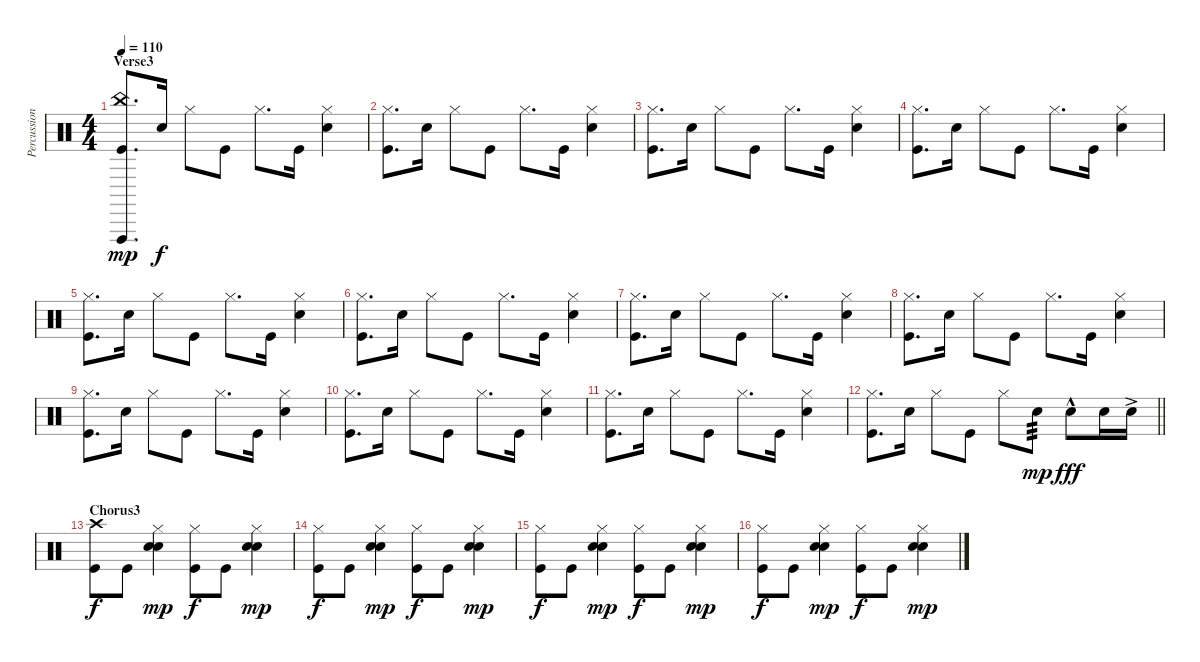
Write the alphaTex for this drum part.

\track ("Percussion" "Percussion") {instrument percussion}
\staff {score}
\articulation defaults
\ts (4 4)
\section ("" "Verse3")
\tempo 110
\clef neutral
\ks c
("Vibraslap (hit)" "Kick (hit)" "China (hit)").8{d dy mp} "Snare (hit) 2".16{dy f} "Hi-Hat (closed)".8 "Kick (hit)".8 "Hi-Hat (closed)".8{d} "Kick (hit)".16 ("Hi-Hat (closed)" "Snare (hit) 2").4 |
("Hi-Hat (closed)" "Kick (hit)").8{d} "Snare (hit) 2".16 "Hi-Hat (closed)".8 "Kick (hit)".8 "Hi-Hat (closed)".8{d} "Kick (hit)".16 ("Hi-Hat (closed)" "Snare (hit) 2").4 |
("Hi-Hat (closed)" "Kick (hit)").8{d} "Snare (hit) 2".16 "Hi-Hat (closed)".8 "Kick (hit)".8 "Hi-Hat (closed)".8{d} "Kick (hit)".16 ("Hi-Hat (closed)" "Snare (hit) 2").4 |
("Hi-Hat (closed)" "Kick (hit)").8{d} "Snare (hit) 2".16 "Hi-Hat (closed)".8 "Kick (hit)".8 "Hi-Hat (closed)".8{d} "Kick (hit)".16 ("Hi-Hat (closed)" "Snare (hit) 2").4 |
("Hi-Hat (closed)" "Kick (hit)").8{d} "Snare (hit) 2".16 "Hi-Hat (closed)".8 "Kick (hit)".8 "Hi-Hat (closed)".8{d} "Kick (hit)".16 ("Hi-Hat (closed)" "Snare (hit) 2").4 |
("Hi-Hat (closed)" "Kick (hit)").8{d} "Snare (hit) 2".16 "Hi-Hat (closed)".8 "Kick (hit)".8 "Hi-Hat (closed)".8{d} "Kick (hit)".16 ("Hi-Hat (closed)" "Snare (hit) 2").4 |
("Hi-Hat (closed)" "Kick (hit)").8{d} "Snare (hit) 2".16 "Hi-Hat (closed)".8 "Kick (hit)".8 "Hi-Hat (closed)".8{d} "Kick (hit)".16 ("Hi-Hat (closed)" "Snare (hit) 2").4 |
("Hi-Hat (closed)" "Kick (hit)").8{d} "Snare (hit) 2".16 "Hi-Hat (closed)".8 "Kick (hit)".8 "Hi-Hat (closed)".8{d} "Kick (hit)".16 ("Hi-Hat (closed)" "Snare (hit) 2").4 |
("Hi-Hat (closed)" "Kick (hit)").8{d} "Snare (hit) 2".16 "Hi-Hat (closed)".8 "Kick (hit)".8 "Hi-Hat (closed)".8{d} "Kick (hit)".16 ("Hi-Hat (closed)" "Snare (hit) 2").4 |
("Hi-Hat (closed)" "Kick (hit)").8{d} "Snare (hit) 2".16 "Hi-Hat (closed)".8 "Kick (hit)".8 "Hi-Hat (closed)".8{d} "Kick (hit)".16 ("Hi-Hat (closed)" "Snare (hit) 2").4 |
("Hi-Hat (closed)" "Kick (hit)").8{d} "Snare (hit) 2".16 "Hi-Hat (closed)".8 "Kick (hit)".8 "Hi-Hat (closed)".8{d} "Kick (hit)".16 ("Hi-Hat (closed)" "Snare (hit) 2").4 |
\barLineRight lightlight
("Hi-Hat (closed)" "Kick (hit)").8{d} "Snare (hit) 2".16 "Hi-Hat (closed)".8 "Kick (hit)".8 "Hi-Hat (closed)".8 "Snare (hit) 2".8{tp 3 dy mp} "Snare (hit) 2"{hac}.8{dy fff} "Snare (hit) 2".16 "Snare (hit) 2"{ac}.16 |
\section ("" "Chorus3")
("Crash high (hit)" "Kick (hit)").8{dy f} "Kick (hit)".8 ("Hi-Hat (closed)" "Snare (hit) 2" "Hand Clap (hit)").4{dy mp} ("Hi-Hat (closed)" "Kick (hit)").8{dy f} "Kick (hit)".8 ("Hi-Hat (closed)" "Snare (hit) 2" "Hand Clap (hit)").4{dy mp} |
("Hi-Hat (closed)" "Kick (hit)").8{dy f} "Kick (hit)".8 ("Hi-Hat (closed)" "Snare (hit) 2" "Hand Clap (hit)").4{dy mp} ("Hi-Hat (closed)" "Kick (hit)").8{dy f} "Kick (hit)".8 ("Hi-Hat (closed)" "Snare (hit) 2" "Hand Clap (hit)").4{dy mp} |
("Hi-Hat (closed)" "Kick (hit)").8{dy f} "Kick (hit)".8 ("Hi-Hat (closed)" "Snare (hit) 2" "Hand Clap (hit)").4{dy mp} ("Hi-Hat (closed)" "Kick (hit)").8{dy f} "Kick (hit)".8 ("Hi-Hat (closed)" "Snare (hit) 2" "Hand Clap (hit)").4{dy mp} |
("Hi-Hat (closed)" "Kick (hit)").8{dy f} "Kick (hit)".8 ("Hi-Hat (closed)" "Snare (hit) 2" "Hand Clap (hit)").4{dy mp} ("Hi-Hat (closed)" "Kick (hit)").8{dy f} "Kick (hit)".8 ("Hi-Hat (closed)" "Snare (hit) 2" "Hand Clap (hit)").4{dy mp}
